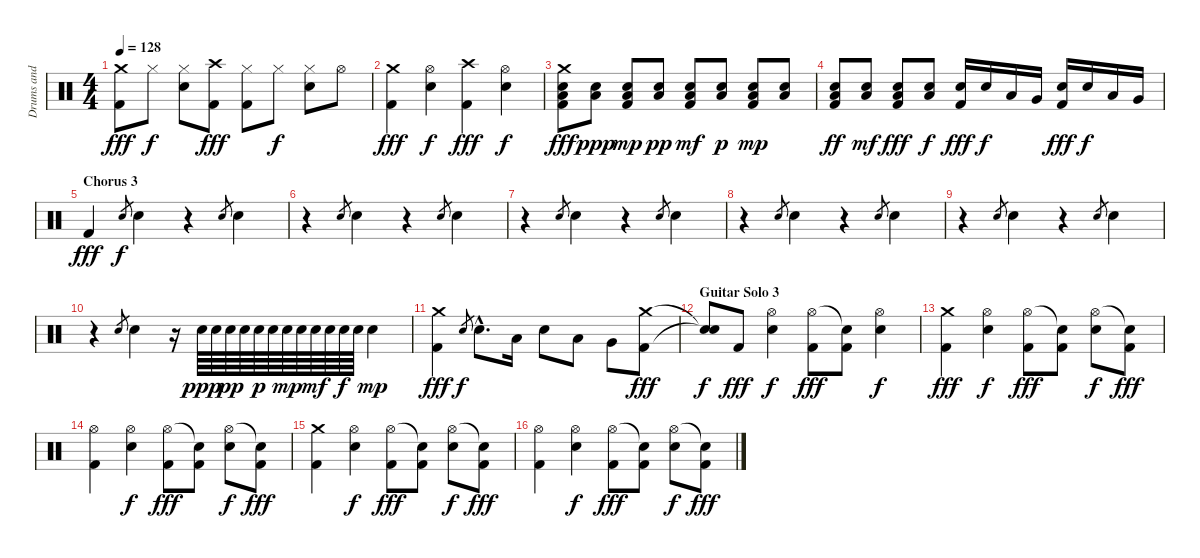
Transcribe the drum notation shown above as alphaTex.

\track ("Drums and Percussion" "Drums and ") {instrument percussion}
\staff {score}
\articulation defaults
\ts (4 4)
\tempo 128
\clef neutral
\ks c
("Crash medium (hit)" "Kick (hit) 2").8{dy fff} "Hi-Hat (closed)".8{dy f} ("Hi-Hat (closed)" "Electric Snare (hit)").8 ("Crash high (hit)" "Kick (hit) 2").8{dy fff} ("Hi-Hat (closed)" "Kick (hit) 2").8 "Hi-Hat (closed)".8{dy f} ("Hi-Hat (closed)" "Electric Snare (hit)").8 "Hi-Hat (open)".8 |
("Crash medium (hit)" "Kick (hit) 2").4{dy fff} ("Hi-Hat (open)" "Electric Snare (hit)").4{dy f} ("Crash high (hit)" "Kick (hit) 2").4{dy fff} ("Hi-Hat (open)" "Electric Snare (hit)").4{dy f} |
("Crash medium (hit)" "Electric Snare (hit)" "Low Floor Tom (hit)" "Kick (hit) 2").8{dy fff} ("Electric Snare (hit)" "Low Floor Tom (hit)").8{dy ppp} ("Electric Snare (hit)" "Low Floor Tom (hit)" "Kick (hit) 2").8{dy mp} ("Electric Snare (hit)" "Low Floor Tom (hit)").8{dy pp} ("Electric Snare (hit)" "Low Floor Tom (hit)" "Kick (hit) 2").8{dy mf} ("Electric Snare (hit)" "Low Floor Tom (hit)").8{dy p} ("Electric Snare (hit)" "Low Floor Tom (hit)" "Kick (hit) 2").8{dy mp} ("Electric Snare (hit)" "Low Floor Tom (hit)").8 |
("Electric Snare (hit)" "Low Floor Tom (hit)" "Kick (hit) 2").8{dy ff} ("Electric Snare (hit)" "Low Floor Tom (hit)").8{dy mf} ("Electric Snare (hit)" "Low Floor Tom (hit)" "Kick (hit) 2").8{dy fff} ("Electric Snare (hit)" "Low Floor Tom (hit)").8{dy f} ("Electric Snare (hit)" "Kick (hit) 2").16{dy fff} "Electric Snare (hit)".16{dy f} "Low Tom (hit)".16 "Very Low Tom (hit)".16 ("Electric Snare (hit)" "Kick (hit) 2").16{dy fff} "Electric Snare (hit)".16{dy f} "Low Tom (hit)".16 "Very Low Tom (hit)".16 |
\section ("" "Chorus 3")
"Kick (hit) 2".4{dy fff} "Electric Snare (hit)".8{gr dy f} "Electric Snare (hit)".4 r.4 "Electric Snare (hit)".8{gr} "Electric Snare (hit)".4 |
r.4 "Electric Snare (hit)".8{gr} "Electric Snare (hit)".4 r.4 "Electric Snare (hit)".8{gr} "Electric Snare (hit)".4 |
r.4 "Electric Snare (hit)".8{gr} "Electric Snare (hit)".4 r.4 "Electric Snare (hit)".8{gr} "Electric Snare (hit)".4 |
r.4 "Electric Snare (hit)".8{gr} "Electric Snare (hit)".4 r.4 "Electric Snare (hit)".8{gr} "Electric Snare (hit)".4 |
r.4 "Electric Snare (hit)".8{gr} "Electric Snare (hit)".4 r.4 "Electric Snare (hit)".8{gr} "Electric Snare (hit)".4 |
r.4 "Electric Snare (hit)".8{gr} "Electric Snare (hit)".4 r.16 "Electric Snare (hit)".64{dy ppp} "Electric Snare (hit)".64 "Electric Snare (hit)".64{dy pp} "Electric Snare (hit)".64 "Electric Snare (hit)".64{dy p} "Electric Snare (hit)".64 "Electric Snare (hit)".64{dy mp} "Electric Snare (hit)".64 "Electric Snare (hit)".64{dy mf} "Electric Snare (hit)".64 "Electric Snare (hit)".64{dy f} "Electric Snare (hit)".64 "Electric Snare (hit)".4{dy mp} |
("Crash medium (hit)" "Kick (hit) 2").4{dy fff} "Electric Snare (hit)".8{gr dy f} "Electric Snare (hit)"{hac}.8{d} "Low Tom (hit)".16 "Electric Snare (hit)".8 "Low Tom (hit)".8 "Very Low Tom (hit)".8 ("Crash medium (hit)" "Kick (hit) 2").8{dy fff} |
\section ("" "Guitar Solo 3")
("Snare (hit)"{t} "Snare (hit)"{t}).8{dy f} "Kick (hit) 2".8{dy fff} ("Hi-Hat (open)" "Electric Snare (hit)").4{dy f} ("Hi-Hat (open)" "Kick (hit) 2").8{dy fff} ("Snare (hit)"{t} "Kick (hit) 2").8 ("Hi-Hat (open)" "Electric Snare (hit)").4{dy f} |
("Crash medium (hit)" "Kick (hit) 2").4{dy fff} ("Hi-Hat (open)" "Electric Snare (hit)").4{dy f} ("Hi-Hat (open)" "Kick (hit) 2").8{dy fff} ("Snare (hit)"{t} "Kick (hit) 2").8 ("Hi-Hat (open)" "Electric Snare (hit)").8{dy f} ("Snare (hit)"{t} "Kick (hit) 2").8{dy fff} |
("Hi-Hat (open)" "Kick (hit) 2").4 ("Hi-Hat (open)" "Electric Snare (hit)").4{dy f} ("Hi-Hat (open)" "Kick (hit) 2").8{dy fff} ("Snare (hit)"{t} "Kick (hit) 2").8 ("Hi-Hat (open)" "Electric Snare (hit)").8{dy f} ("Snare (hit)"{t} "Kick (hit) 2").8{dy fff} |
("Crash medium (hit)" "Kick (hit) 2").4 ("Hi-Hat (open)" "Electric Snare (hit)").4{dy f} ("Hi-Hat (open)" "Kick (hit) 2").8{dy fff} ("Snare (hit)"{t} "Kick (hit) 2").8 ("Hi-Hat (open)" "Electric Snare (hit)").8{dy f} ("Snare (hit)"{t} "Kick (hit) 2").8{dy fff} |
("Hi-Hat (open)" "Kick (hit) 2").4 ("Hi-Hat (open)" "Electric Snare (hit)").4{dy f} ("Hi-Hat (open)" "Kick (hit) 2").8{dy fff} ("Snare (hit)"{t} "Kick (hit) 2").8 ("Hi-Hat (open)" "Electric Snare (hit)").8{dy f} ("Snare (hit)"{t} "Kick (hit) 2").8{dy fff}
